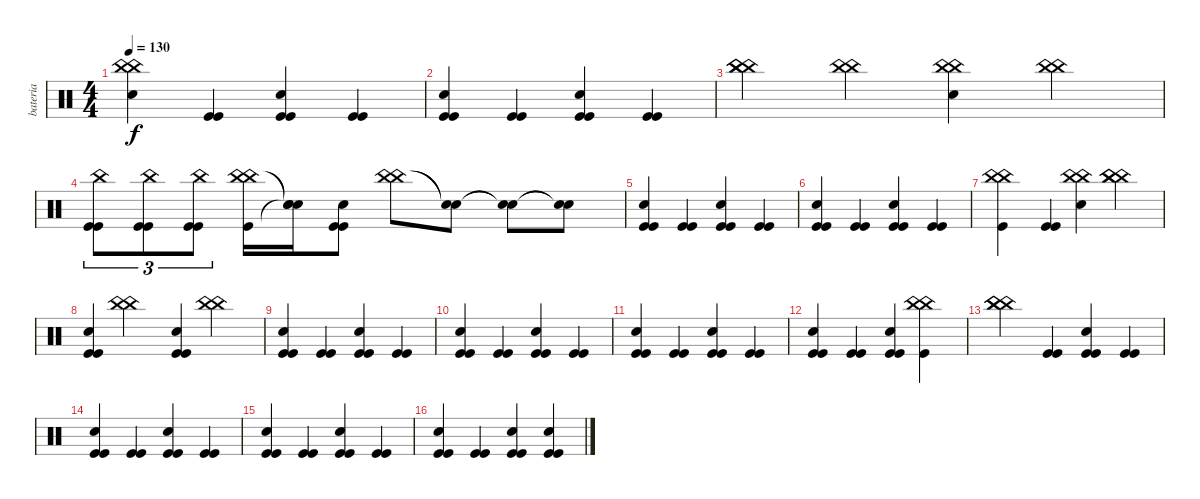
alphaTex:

\track ("bateria" "bateria") {instrument percussion}
\staff {score}
\articulation defaults
\ts (4 4)
\tempo 130
\clef neutral
\ks c
("China (hit)" "Snare (hit) 2" "China (hit)").4{dy f} ("Kick (hit)" "Kick (hit)").4 ("Kick (hit)" "Snare (hit) 2" "Kick (hit)").4 ("Kick (hit)" "Kick (hit)").4 |
("Kick (hit)" "Snare (hit) 2" "Kick (hit)").4 ("Kick (hit)" "Kick (hit)").4 ("Kick (hit)" "Snare (hit) 2" "Kick (hit)").4 ("Kick (hit)" "Kick (hit)").4 |
("China (hit)" "China (hit)" "China (hit)").4 ("China (hit)" "China (hit)").4 ("China (hit)" "Snare (hit) 2" "China (hit)").4 ("China (hit)" "China (hit)").4 |
("China (hit)" "Kick (hit)" "Kick (hit)").8{tu (3 2)} ("China (hit)" "Kick (hit)" "Kick (hit)").8{tu (3 2)} ("China (hit)" "Kick (hit)" "Kick (hit)").8{tu (3 2)} ("China (hit)" "Kick (hit)" "China (hit)").16 ("Snare (hit)"{t} "Snare (hit)"{t} "Snare (hit)"{t}).16 ("Kick (hit)" "Kick (hit)" "Snare (hit) 2").8 ("China (hit)" "China (hit)").8 ("Snare (hit)"{t} "Snare (hit)"{t}).8 ("Snare (hit)"{t} "Snare (hit)"{t}).8 ("Snare (hit)"{t} "Snare (hit)"{t}).8 |
("Kick (hit)" "Snare (hit) 2" "Kick (hit)").4 ("Kick (hit)" "Kick (hit)").4 ("Kick (hit)" "Snare (hit) 2" "Kick (hit)").4 ("Kick (hit)" "Kick (hit)").4 |
("Kick (hit)" "Snare (hit) 2" "Kick (hit)").4 ("Kick (hit)" "Kick (hit)").4 ("Kick (hit)" "Snare (hit) 2" "Kick (hit)").4 ("Kick (hit)" "Kick (hit)").4 |
("China (hit)" "China (hit)" "Kick (hit)").4 ("Kick (hit)" "Kick (hit)").4 ("China (hit)" "Snare (hit) 2" "China (hit)").4 ("China (hit)" "China (hit)" "China (hit)").4 |
("Kick (hit)" "Snare (hit) 2" "Kick (hit)").4 ("China (hit)" "China (hit)").4 ("Kick (hit)" "Snare (hit) 2" "Kick (hit)").4 ("China (hit)" "China (hit)").4 |
("Kick (hit)" "Snare (hit) 2" "Kick (hit)").4 ("Kick (hit)" "Kick (hit)").4 ("Kick (hit)" "Snare (hit) 2" "Kick (hit)").4 ("Kick (hit)" "Kick (hit)").4 |
("Kick (hit)" "Snare (hit) 2" "Kick (hit)").4 ("Kick (hit)" "Kick (hit)").4 ("Kick (hit)" "Snare (hit) 2" "Kick (hit)").4 ("Kick (hit)" "Kick (hit)").4 |
("Kick (hit)" "Snare (hit) 2" "Kick (hit)").4 ("Kick (hit)" "Kick (hit)").4 ("Kick (hit)" "Snare (hit) 2" "Kick (hit)").4 ("Kick (hit)" "Kick (hit)").4 |
("Kick (hit)" "Snare (hit) 2" "Kick (hit)").4 ("Kick (hit)" "Kick (hit)").4 ("Kick (hit)" "Snare (hit) 2" "Kick (hit)").4 ("China (hit)" "China (hit)" "Kick (hit)").4 |
("China (hit)" "China (hit)" "China (hit)").4 ("Kick (hit)" "Kick (hit)").4 ("Kick (hit)" "Snare (hit) 2" "Kick (hit)").4 ("Kick (hit)" "Kick (hit)").4 |
("Kick (hit)" "Snare (hit) 2" "Kick (hit)").4 ("Kick (hit)" "Kick (hit)").4 ("Kick (hit)" "Snare (hit) 2" "Kick (hit)").4 ("Kick (hit)" "Kick (hit)").4 |
("Kick (hit)" "Snare (hit) 2" "Kick (hit)").4 ("Kick (hit)" "Kick (hit)").4 ("Kick (hit)" "Snare (hit) 2" "Kick (hit)").4 ("Kick (hit)" "Kick (hit)").4 |
("Kick (hit)" "Snare (hit) 2" "Kick (hit)").4 ("Kick (hit)" "Kick (hit)").4 ("Kick (hit)" "Snare (hit) 2" "Kick (hit)").4 ("Kick (hit)" "Snare (hit) 2" "Kick (hit)").4
